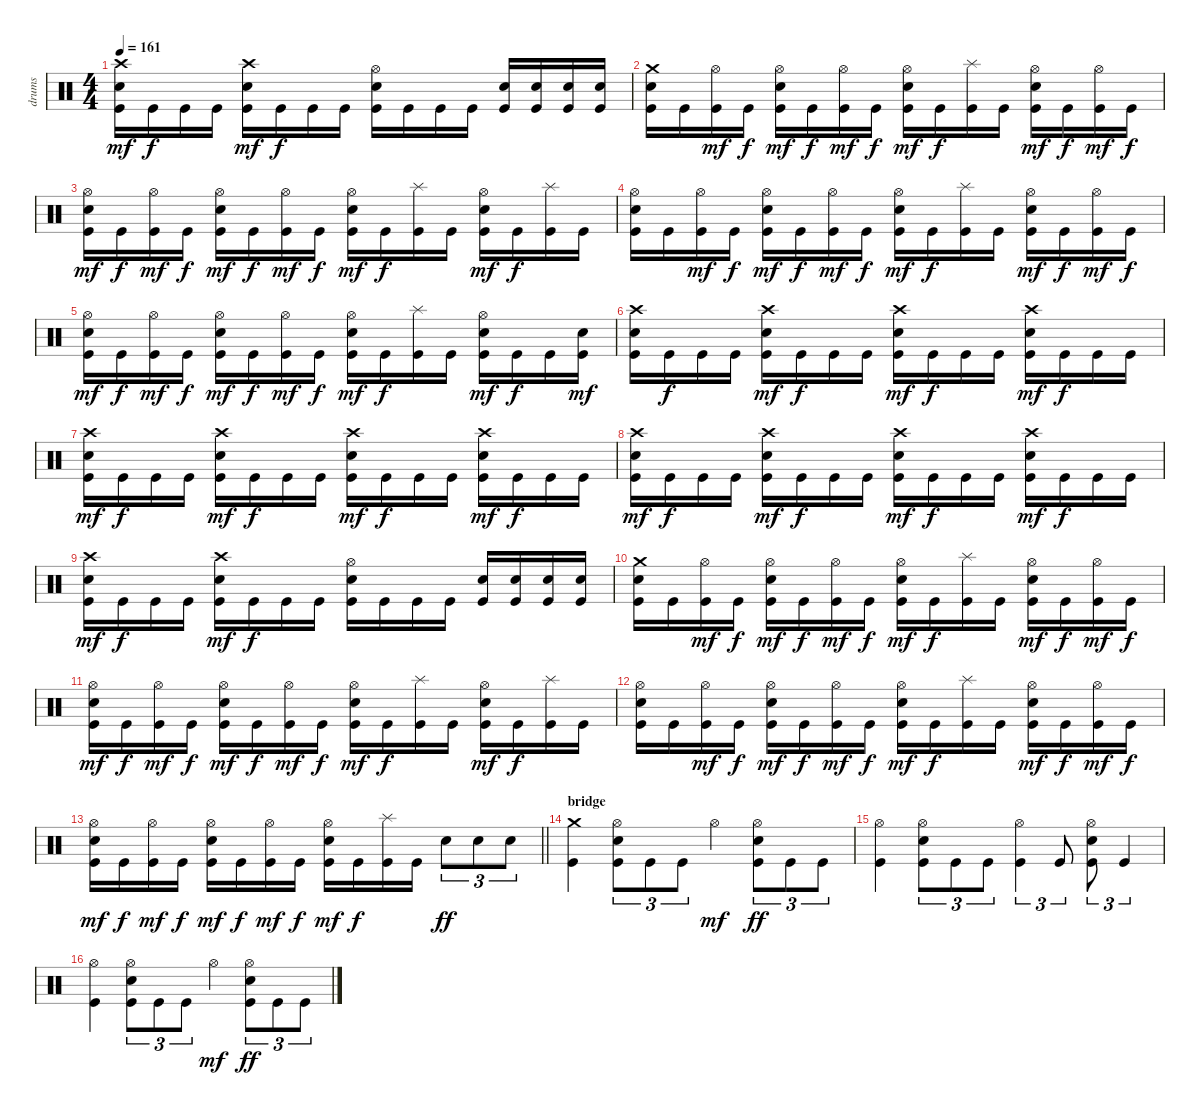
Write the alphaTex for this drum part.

\track ("drums" "drums") {instrument percussion}
\staff {score}
\articulation defaults
\ts (4 4)
\tempo 161
\clef neutral
\ks c
("Crash high (hit)" "Electric Snare (hit)" "Kick (hit)").16{dy mf} "Kick (hit)".16{dy f} "Kick (hit)".16 "Kick (hit)".16 ("Crash high (hit)" "Electric Snare (hit)" "Kick (hit)").16{dy mf} "Kick (hit)".16{dy f} "Kick (hit)".16 "Kick (hit)".16 ("Hi-Hat (open)" "Electric Snare (hit)" "Kick (hit)").16 "Kick (hit)".16 "Kick (hit)".16 "Kick (hit)".16 ("Electric Snare (hit)" "Kick (hit)").16 ("Electric Snare (hit)" "Kick (hit)").16 ("Electric Snare (hit)" "Kick (hit)").16 ("Electric Snare (hit)" "Kick (hit)").16 |
("Crash medium (hit)" "Electric Snare (hit)" "Kick (hit)").16 "Kick (hit)".16 ("Hi-Hat (open)" "Kick (hit)").16{dy mf} "Kick (hit)".16{dy f} ("Hi-Hat (open)" "Electric Snare (hit)" "Kick (hit)").16{dy mf} "Kick (hit)".16{dy f} ("Hi-Hat (open)" "Kick (hit)").16{dy mf} "Kick (hit)".16{dy f} ("Hi-Hat (open)" "Electric Snare (hit)" "Kick (hit)").16{dy mf} "Kick (hit)".16{dy f} ("Splash (hit)" "Kick (hit)").16 "Kick (hit)".16 ("Hi-Hat (open)" "Electric Snare (hit)" "Kick (hit)").16{dy mf} "Kick (hit)".16{dy f} ("Hi-Hat (open)" "Kick (hit)").16{dy mf} "Kick (hit)".16{dy f} |
("Hi-Hat (open)" "Electric Snare (hit)" "Kick (hit)").16{dy mf} "Kick (hit)".16{dy f} ("Hi-Hat (open)" "Kick (hit)").16{dy mf} "Kick (hit)".16{dy f} ("Hi-Hat (open)" "Electric Snare (hit)" "Kick (hit)").16{dy mf} "Kick (hit)".16{dy f} ("Hi-Hat (open)" "Kick (hit)").16{dy mf} "Kick (hit)".16{dy f} ("Hi-Hat (open)" "Electric Snare (hit)" "Kick (hit)").16{dy mf} "Kick (hit)".16{dy f} ("Splash (hit)" "Kick (hit)").16 "Kick (hit)".16 ("Hi-Hat (open)" "Electric Snare (hit)" "Kick (hit)").16{dy mf} "Kick (hit)".16{dy f} ("Splash (hit)" "Kick (hit)").16 "Kick (hit)".16 |
("Hi-Hat (open)" "Electric Snare (hit)" "Kick (hit)").16 "Kick (hit)".16 ("Hi-Hat (open)" "Kick (hit)").16{dy mf} "Kick (hit)".16{dy f} ("Hi-Hat (open)" "Electric Snare (hit)" "Kick (hit)").16{dy mf} "Kick (hit)".16{dy f} ("Hi-Hat (open)" "Kick (hit)").16{dy mf} "Kick (hit)".16{dy f} ("Hi-Hat (open)" "Electric Snare (hit)" "Kick (hit)").16{dy mf} "Kick (hit)".16{dy f} ("Splash (hit)" "Kick (hit)").16 "Kick (hit)".16 ("Hi-Hat (open)" "Electric Snare (hit)" "Kick (hit)").16{dy mf} "Kick (hit)".16{dy f} ("Hi-Hat (open)" "Kick (hit)").16{dy mf} "Kick (hit)".16{dy f} |
("Hi-Hat (open)" "Electric Snare (hit)" "Kick (hit)").16{dy mf} "Kick (hit)".16{dy f} ("Hi-Hat (open)" "Kick (hit)").16{dy mf} "Kick (hit)".16{dy f} ("Hi-Hat (open)" "Electric Snare (hit)" "Kick (hit)").16{dy mf} "Kick (hit)".16{dy f} ("Hi-Hat (open)" "Kick (hit)").16{dy mf} "Kick (hit)".16{dy f} ("Hi-Hat (open)" "Electric Snare (hit)" "Kick (hit)").16{dy mf} "Kick (hit)".16{dy f} ("Splash (hit)" "Kick (hit)").16 "Kick (hit)".16 ("Hi-Hat (open)" "Electric Snare (hit)" "Kick (hit)").16{dy mf} "Kick (hit)".16{dy f} "Kick (hit)".16 ("Electric Snare (hit)" "Kick (hit)").16{dy mf} |
("Crash high (hit)" "Electric Snare (hit)" "Kick (hit)").16 "Kick (hit)".16{dy f} "Kick (hit)".16 "Kick (hit)".16 ("Crash high (hit)" "Electric Snare (hit)" "Kick (hit)").16{dy mf} "Kick (hit)".16{dy f} "Kick (hit)".16 "Kick (hit)".16 ("Crash high (hit)" "Electric Snare (hit)" "Kick (hit)").16{dy mf} "Kick (hit)".16{dy f} "Kick (hit)".16 "Kick (hit)".16 ("Crash high (hit)" "Electric Snare (hit)" "Kick (hit)").16{dy mf} "Kick (hit)".16{dy f} "Kick (hit)".16 "Kick (hit)".16 |
("Crash high (hit)" "Electric Snare (hit)" "Kick (hit)").16{dy mf} "Kick (hit)".16{dy f} "Kick (hit)".16 "Kick (hit)".16 ("Crash high (hit)" "Electric Snare (hit)" "Kick (hit)").16{dy mf} "Kick (hit)".16{dy f} "Kick (hit)".16 "Kick (hit)".16 ("Crash high (hit)" "Electric Snare (hit)" "Kick (hit)").16{dy mf} "Kick (hit)".16{dy f} "Kick (hit)".16 "Kick (hit)".16 ("Crash high (hit)" "Electric Snare (hit)" "Kick (hit)").16{dy mf} "Kick (hit)".16{dy f} "Kick (hit)".16 "Kick (hit)".16 |
("Crash high (hit)" "Electric Snare (hit)" "Kick (hit)").16{dy mf} "Kick (hit)".16{dy f} "Kick (hit)".16 "Kick (hit)".16 ("Crash high (hit)" "Electric Snare (hit)" "Kick (hit)").16{dy mf} "Kick (hit)".16{dy f} "Kick (hit)".16 "Kick (hit)".16 ("Crash high (hit)" "Electric Snare (hit)" "Kick (hit)").16{dy mf} "Kick (hit)".16{dy f} "Kick (hit)".16 "Kick (hit)".16 ("Crash high (hit)" "Electric Snare (hit)" "Kick (hit)").16{dy mf} "Kick (hit)".16{dy f} "Kick (hit)".16 "Kick (hit)".16 |
("Crash high (hit)" "Electric Snare (hit)" "Kick (hit)").16{dy mf} "Kick (hit)".16{dy f} "Kick (hit)".16 "Kick (hit)".16 ("Crash high (hit)" "Electric Snare (hit)" "Kick (hit)").16{dy mf} "Kick (hit)".16{dy f} "Kick (hit)".16 "Kick (hit)".16 ("Hi-Hat (open)" "Electric Snare (hit)" "Kick (hit)").16 "Kick (hit)".16 "Kick (hit)".16 "Kick (hit)".16 ("Electric Snare (hit)" "Kick (hit)").16 ("Electric Snare (hit)" "Kick (hit)").16 ("Electric Snare (hit)" "Kick (hit)").16 ("Electric Snare (hit)" "Kick (hit)").16 |
("Crash medium (hit)" "Electric Snare (hit)" "Kick (hit)").16 "Kick (hit)".16 ("Hi-Hat (open)" "Kick (hit)").16{dy mf} "Kick (hit)".16{dy f} ("Hi-Hat (open)" "Electric Snare (hit)" "Kick (hit)").16{dy mf} "Kick (hit)".16{dy f} ("Hi-Hat (open)" "Kick (hit)").16{dy mf} "Kick (hit)".16{dy f} ("Hi-Hat (open)" "Electric Snare (hit)" "Kick (hit)").16{dy mf} "Kick (hit)".16{dy f} ("Splash (hit)" "Kick (hit)").16 "Kick (hit)".16 ("Hi-Hat (open)" "Electric Snare (hit)" "Kick (hit)").16{dy mf} "Kick (hit)".16{dy f} ("Hi-Hat (open)" "Kick (hit)").16{dy mf} "Kick (hit)".16{dy f} |
("Hi-Hat (open)" "Electric Snare (hit)" "Kick (hit)").16{dy mf} "Kick (hit)".16{dy f} ("Hi-Hat (open)" "Kick (hit)").16{dy mf} "Kick (hit)".16{dy f} ("Hi-Hat (open)" "Electric Snare (hit)" "Kick (hit)").16{dy mf} "Kick (hit)".16{dy f} ("Hi-Hat (open)" "Kick (hit)").16{dy mf} "Kick (hit)".16{dy f} ("Hi-Hat (open)" "Electric Snare (hit)" "Kick (hit)").16{dy mf} "Kick (hit)".16{dy f} ("Splash (hit)" "Kick (hit)").16 "Kick (hit)".16 ("Hi-Hat (open)" "Electric Snare (hit)" "Kick (hit)").16{dy mf} "Kick (hit)".16{dy f} ("Splash (hit)" "Kick (hit)").16 "Kick (hit)".16 |
("Hi-Hat (open)" "Electric Snare (hit)" "Kick (hit)").16 "Kick (hit)".16 ("Hi-Hat (open)" "Kick (hit)").16{dy mf} "Kick (hit)".16{dy f} ("Hi-Hat (open)" "Electric Snare (hit)" "Kick (hit)").16{dy mf} "Kick (hit)".16{dy f} ("Hi-Hat (open)" "Kick (hit)").16{dy mf} "Kick (hit)".16{dy f} ("Hi-Hat (open)" "Electric Snare (hit)" "Kick (hit)").16{dy mf} "Kick (hit)".16{dy f} ("Splash (hit)" "Kick (hit)").16 "Kick (hit)".16 ("Hi-Hat (open)" "Electric Snare (hit)" "Kick (hit)").16{dy mf} "Kick (hit)".16{dy f} ("Hi-Hat (open)" "Kick (hit)").16{dy mf} "Kick (hit)".16{dy f} |
\barLineRight lightlight
("Hi-Hat (open)" "Electric Snare (hit)" "Kick (hit)").16{dy mf} "Kick (hit)".16{dy f} ("Hi-Hat (open)" "Kick (hit)").16{dy mf} "Kick (hit)".16{dy f} ("Hi-Hat (open)" "Electric Snare (hit)" "Kick (hit)").16{dy mf} "Kick (hit)".16{dy f} ("Hi-Hat (open)" "Kick (hit)").16{dy mf} "Kick (hit)".16{dy f} ("Hi-Hat (open)" "Electric Snare (hit)" "Kick (hit)").16{dy mf} "Kick (hit)".16{dy f} ("Splash (hit)" "Kick (hit)").16 "Kick (hit)".16 "Electric Snare (hit)".8{tu (3 2) dy ff} "Electric Snare (hit)".8{tu (3 2)} "Electric Snare (hit)".8{tu (3 2)} |
\section ("" "bridge")
("Crash medium (hit)" "Kick (hit)").4 ("Hi-Hat (open)" "Electric Snare (hit)" "Kick (hit)").8{tu (3 2)} "Kick (hit)".8{tu (3 2)} "Kick (hit)".8{tu (3 2)} "Hi-Hat (open)".4{dy mf} ("Hi-Hat (open)" "Electric Snare (hit)" "Kick (hit)").8{tu (3 2) dy ff} "Kick (hit)".8{tu (3 2)} "Kick (hit)".8{tu (3 2)} |
("Hi-Hat (open)" "Kick (hit)").4 ("Hi-Hat (open)" "Electric Snare (hit)" "Kick (hit)").8{tu (3 2)} "Kick (hit)".8{tu (3 2)} "Kick (hit)".8{tu (3 2)} ("Hi-Hat (open)" "Kick (hit)").4{tu (3 2)} "Kick (hit)".8{tu (3 2)} ("Hi-Hat (open)" "Electric Snare (hit)" "Kick (hit)").8{tu (3 2)} "Kick (hit)".4{tu (3 2)} |
("Hi-Hat (open)" "Kick (hit)").4 ("Hi-Hat (open)" "Electric Snare (hit)" "Kick (hit)").8{tu (3 2)} "Kick (hit)".8{tu (3 2)} "Kick (hit)".8{tu (3 2)} "Hi-Hat (open)".4{dy mf} ("Hi-Hat (open)" "Electric Snare (hit)" "Kick (hit)").8{tu (3 2) dy ff} "Kick (hit)".8{tu (3 2)} "Kick (hit)".8{tu (3 2)}
